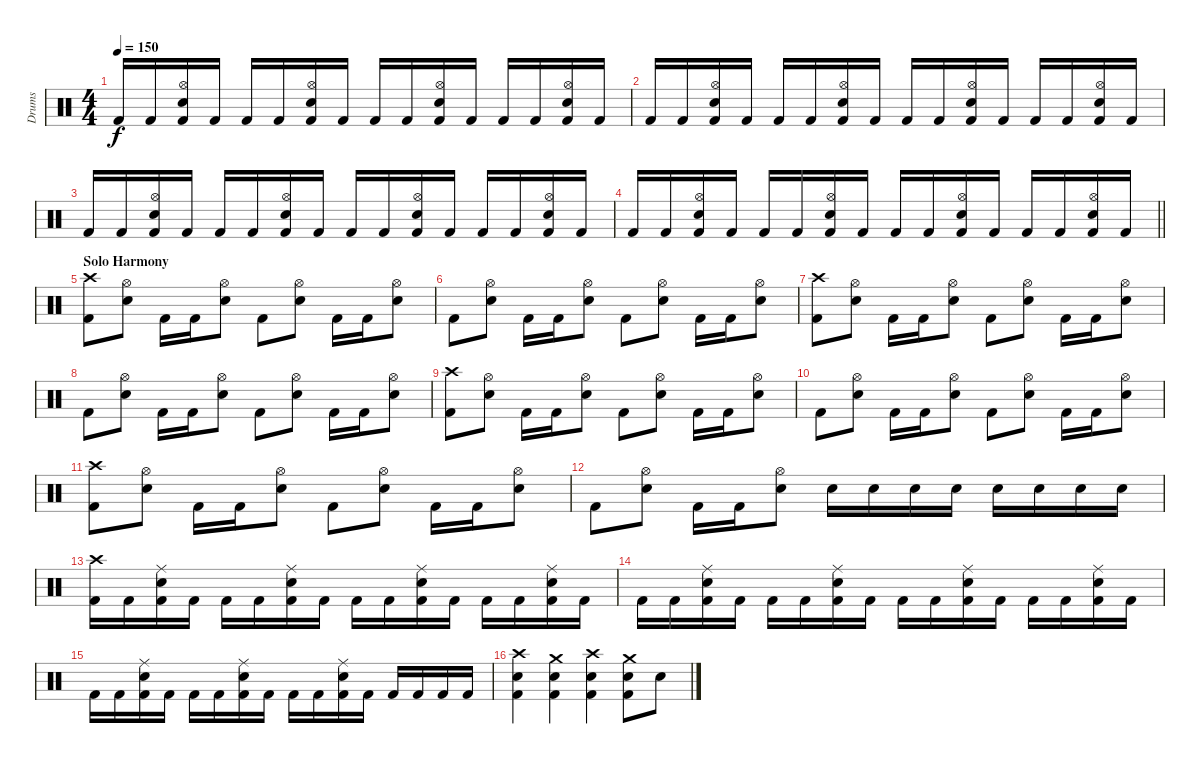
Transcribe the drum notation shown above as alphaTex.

\track ("Drums" "Drums") {instrument percussion}
\staff {score}
\articulation defaults
\ts (4 4)
\tempo 150
\clef neutral
\ks c "Kick (hit) 2".16{dy f} "Kick (hit) 2".16
("Hi-Hat (open)" "Snare (hit) 2" "Kick (hit) 2").16 "Kick (hit) 2".16 "Kick (hit) 2".16 "Kick (hit) 2".16 ("Hi-Hat (open)" "Snare (hit) 2" "Kick (hit) 2").16 "Kick (hit) 2".16 "Kick (hit) 2".16 "Kick (hit) 2".16 ("Hi-Hat (open)" "Snare (hit) 2" "Kick (hit) 2").16 "Kick (hit) 2".16 "Kick (hit) 2".16 "Kick (hit) 2".16 ("Hi-Hat (open)" "Snare (hit) 2" "Kick (hit) 2").16 "Kick (hit) 2".16 |
"Kick (hit) 2".16 "Kick (hit) 2".16 ("Hi-Hat (open)" "Snare (hit) 2" "Kick (hit) 2").16 "Kick (hit) 2".16 "Kick (hit) 2".16 "Kick (hit) 2".16 ("Hi-Hat (open)" "Snare (hit) 2" "Kick (hit) 2").16 "Kick (hit) 2".16 "Kick (hit) 2".16 "Kick (hit) 2".16 ("Hi-Hat (open)" "Snare (hit) 2" "Kick (hit) 2").16 "Kick (hit) 2".16 "Kick (hit) 2".16 "Kick (hit) 2".16 ("Hi-Hat (open)" "Snare (hit) 2" "Kick (hit) 2").16 "Kick (hit) 2".16 |
"Kick (hit) 2".16 "Kick (hit) 2".16 ("Hi-Hat (open)" "Snare (hit) 2" "Kick (hit) 2").16 "Kick (hit) 2".16 "Kick (hit) 2".16 "Kick (hit) 2".16 ("Hi-Hat (open)" "Snare (hit) 2" "Kick (hit) 2").16 "Kick (hit) 2".16 "Kick (hit) 2".16 "Kick (hit) 2".16 ("Hi-Hat (open)" "Snare (hit) 2" "Kick (hit) 2").16 "Kick (hit) 2".16 "Kick (hit) 2".16 "Kick (hit) 2".16 ("Hi-Hat (open)" "Snare (hit) 2" "Kick (hit) 2").16 "Kick (hit) 2".16 |
\barLineRight lightlight "Kick (hit) 2".16 "Kick (hit) 2".16
("Hi-Hat (open)" "Snare (hit) 2" "Kick (hit) 2").16 "Kick (hit) 2".16 "Kick (hit) 2".16 "Kick (hit) 2".16 ("Hi-Hat (open)" "Snare (hit) 2" "Kick (hit) 2").16 "Kick (hit) 2".16 "Kick (hit) 2".16 "Kick (hit) 2".16 ("Hi-Hat (open)" "Snare (hit) 2" "Kick (hit) 2").16 "Kick (hit) 2".16 "Kick (hit) 2".16 "Kick (hit) 2".16 ("Hi-Hat (open)" "Snare (hit) 2" "Kick (hit) 2").16 "Kick (hit) 2".16 |
\section ("" "Solo Harmony")
("Crash high (hit)" "Kick (hit) 2").8 ("Hi-Hat (open)" "Snare (hit) 2").8 "Kick (hit) 2".16 "Kick (hit) 2".16 ("Hi-Hat (open)" "Snare (hit) 2").8 "Kick (hit) 2".8 ("Hi-Hat (open)" "Snare (hit) 2").8 "Kick (hit) 2".16 "Kick (hit) 2".16 ("Hi-Hat (open)" "Snare (hit) 2").8 |
"Kick (hit) 2".8 ("Hi-Hat (open)" "Snare (hit) 2").8 "Kick (hit) 2".16 "Kick (hit) 2".16 ("Hi-Hat (open)" "Snare (hit) 2").8 "Kick (hit) 2".8 ("Hi-Hat (open)" "Snare (hit) 2").8 "Kick (hit) 2".16 "Kick (hit) 2".16 ("Hi-Hat (open)" "Snare (hit) 2").8 |
("Crash high (hit)" "Kick (hit) 2").8 ("Hi-Hat (open)" "Snare (hit) 2").8 "Kick (hit) 2".16 "Kick (hit) 2".16 ("Hi-Hat (open)" "Snare (hit) 2").8 "Kick (hit) 2".8 ("Hi-Hat (open)" "Snare (hit) 2").8 "Kick (hit) 2".16 "Kick (hit) 2".16 ("Hi-Hat (open)" "Snare (hit) 2").8 |
"Kick (hit) 2".8 ("Hi-Hat (open)" "Snare (hit) 2").8 "Kick (hit) 2".16 "Kick (hit) 2".16 ("Hi-Hat (open)" "Snare (hit) 2").8 "Kick (hit) 2".8 ("Hi-Hat (open)" "Snare (hit) 2").8 "Kick (hit) 2".16 "Kick (hit) 2".16 ("Hi-Hat (open)" "Snare (hit) 2").8 |
("Crash high (hit)" "Kick (hit) 2").8 ("Hi-Hat (open)" "Snare (hit) 2").8 "Kick (hit) 2".16 "Kick (hit) 2".16 ("Hi-Hat (open)" "Snare (hit) 2").8 "Kick (hit) 2".8 ("Hi-Hat (open)" "Snare (hit) 2").8 "Kick (hit) 2".16 "Kick (hit) 2".16 ("Hi-Hat (open)" "Snare (hit) 2").8 |
"Kick (hit) 2".8 ("Hi-Hat (open)" "Snare (hit) 2").8 "Kick (hit) 2".16 "Kick (hit) 2".16 ("Hi-Hat (open)" "Snare (hit) 2").8 "Kick (hit) 2".8 ("Hi-Hat (open)" "Snare (hit) 2").8 "Kick (hit) 2".16 "Kick (hit) 2".16 ("Hi-Hat (open)" "Snare (hit) 2").8 |
("Crash high (hit)" "Kick (hit) 2").8 ("Hi-Hat (open)" "Snare (hit) 2").8 "Kick (hit) 2".16 "Kick (hit) 2".16 ("Hi-Hat (open)" "Snare (hit) 2").8 "Kick (hit) 2".8 ("Hi-Hat (open)" "Snare (hit) 2").8 "Kick (hit) 2".16 "Kick (hit) 2".16 ("Hi-Hat (open)" "Snare (hit) 2").8 |
"Kick (hit) 2".8 ("Hi-Hat (open)" "Snare (hit) 2").8 "Kick (hit) 2".16 "Kick (hit) 2".16 ("Hi-Hat (open)" "Snare (hit) 2").8 "Snare (hit) 2".16 "Snare (hit) 2".16 "Snare (hit) 2".16 "Snare (hit) 2".16 "Electric Snare (hit)".16 "Electric Snare (hit)".16 "Electric Snare (hit)".16 "Electric Snare (hit)".16 |
("Crash high (hit)" "Kick (hit) 2").16 "Kick (hit) 2".16 ("Ride (middle)" "Snare (hit) 2" "Kick (hit) 2").16 "Kick (hit) 2".16 "Kick (hit) 2".16 "Kick (hit) 2".16 ("Ride (middle)" "Snare (hit) 2" "Kick (hit) 2").16 "Kick (hit) 2".16 "Kick (hit) 2".16 "Kick (hit) 2".16 ("Ride (middle)" "Snare (hit) 2" "Kick (hit) 2").16 "Kick (hit) 2".16 "Kick (hit) 2".16 "Kick (hit) 2".16 ("Ride (middle)" "Snare (hit) 2" "Kick (hit) 2").16 "Kick (hit) 2".16 |
"Kick (hit) 2".16 "Kick (hit) 2".16 ("Ride (middle)" "Snare (hit) 2" "Kick (hit) 2").16 "Kick (hit) 2".16 "Kick (hit) 2".16 "Kick (hit) 2".16 ("Ride (middle)" "Snare (hit) 2" "Kick (hit) 2").16 "Kick (hit) 2".16 "Kick (hit) 2".16 "Kick (hit) 2".16 ("Ride (middle)" "Snare (hit) 2" "Kick (hit) 2").16 "Kick (hit) 2".16 "Kick (hit) 2".16 "Kick (hit) 2".16 ("Ride (middle)" "Snare (hit) 2" "Kick (hit) 2").16 "Kick (hit) 2".16 |
"Kick (hit) 2".16 "Kick (hit) 2".16 ("Ride (middle)" "Snare (hit) 2" "Kick (hit) 2").16 "Kick (hit) 2".16 "Kick (hit) 2".16 "Kick (hit) 2".16 ("Ride (middle)" "Snare (hit) 2" "Kick (hit) 2").16 "Kick (hit) 2".16 "Kick (hit) 2".16 "Kick (hit) 2".16 ("Ride (middle)" "Snare (hit) 2" "Kick (hit) 2").16 "Kick (hit) 2".16 "Kick (hit) 2".16 "Kick (hit) 2".16 "Kick (hit) 2".16 "Kick (hit) 2".16 |
("Crash high (hit)" "Snare (hit) 2" "Kick (hit) 2").4 ("Crash medium (hit)" "Snare (hit) 2" "Kick (hit) 2").4 ("Crash high (hit)" "Snare (hit) 2" "Kick (hit) 2").4 ("Crash medium (hit)" "Snare (hit) 2" "Kick (hit) 2").8 "Snare (hit) 2".8
